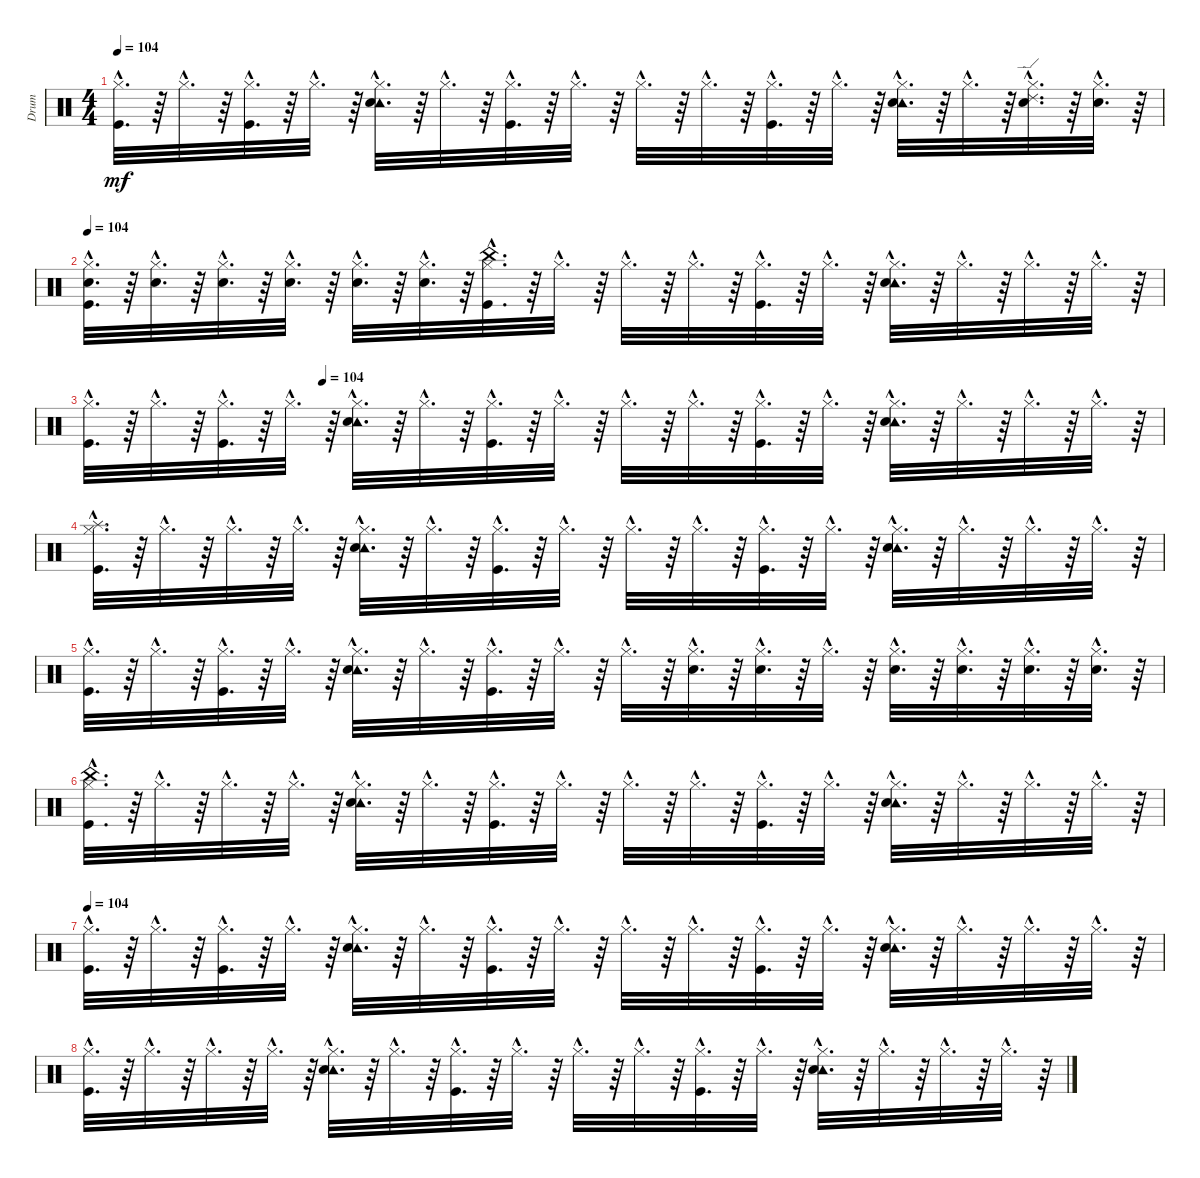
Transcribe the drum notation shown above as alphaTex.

\track ("Drum" "Drum") {instrument percussion}
\staff {score}
\articulation defaults
\ts (4 4)
\tempo 104
\clef neutral
\ks c
("Hi-Hat (closed)"{hac} "Kick (hit)"{hac}).32{d dy mf} r.64 "Hi-Hat (closed)"{hac}.32{d} r.64 ("Kick (hit)"{hac} "Hi-Hat (closed)"{hac}).32{d} r.64 "Hi-Hat (closed)"{hac}.32{d} r.64 ("Tambourine (hit)"{hac} "Hi-Hat (closed)"{hac} "Snare (hit) 2"{hac}).32{d} r.64 "Hi-Hat (closed)"{hac}.32{d} r.64 ("Hi-Hat (closed)"{hac} "Kick (hit)"{hac}).32{d} r.64 "Hi-Hat (closed)"{hac}.32{d} r.64 "Hi-Hat (closed)"{hac}.32{d} r.64 "Hi-Hat (closed)"{hac}.32{d} r.64 ("Kick (hit)"{hac} "Hi-Hat (closed)"{hac}).32{d} r.64 "Hi-Hat (closed)"{hac}.32{d} r.64 ("Tambourine (hit)"{hac} "Snare (hit) 2"{hac} "Hi-Hat (closed)"{hac}).32{d} r.64 "Hi-Hat (closed)"{hac}.32{d} r.64 ("Ride (edge) 2"{hac} "Hi-Hat (closed)"{hac} "Snare (hit) 2"{hac}).32{d} r.64 ("Hi-Hat (closed)"{hac} "Snare (hit) 2"{hac}).32{d} r.64 |
\tempo 104
("Snare (hit) 2"{hac} "Kick (hit)"{hac} "Hi-Hat (closed)"{hac}).32{d} r.64 ("Snare (hit) 2"{hac} "Hi-Hat (closed)"{hac}).32{d} r.64 ("Snare (hit) 2"{hac} "Hi-Hat (closed)"{hac}).32{d} r.64 ("Snare (hit) 2"{hac} "Hi-Hat (closed)"{hac}).32{d} r.64 ("Snare (hit) 2"{hac} "Hi-Hat (closed)"{hac}).32{d} r.64 ("Snare (hit) 2"{hac} "Hi-Hat (closed)"{hac}).32{d} r.64 ("China (hit)"{hac} "Kick (hit)"{hac} "Hi-Hat (closed)"{hac}).32{d} r.64 "Hi-Hat (closed)"{hac}.32{d} r.64 "Hi-Hat (closed)"{hac}.32{d} r.64 "Hi-Hat (closed)"{hac}.32{d} r.64 ("Kick (hit)"{hac} "Hi-Hat (closed)"{hac}).32{d} r.64 "Hi-Hat (closed)"{hac}.32{d} r.64 ("Tambourine (hit)"{hac} "Snare (hit) 2"{hac} "Hi-Hat (closed)"{hac}).32{d} r.64 "Hi-Hat (closed)"{hac}.32{d} r.64 "Hi-Hat (closed)"{hac}.32{d} r.64 "Hi-Hat (closed)"{hac}.32{d} r.64 |
\tempo (104 0.21875)
("Hi-Hat (closed)"{hac} "Kick (hit)"{hac}).32{d} r.64 "Hi-Hat (closed)"{hac}.32{d} r.64 ("Kick (hit)"{hac} "Hi-Hat (closed)"{hac}).32{d} r.64 "Hi-Hat (closed)"{hac}.32{d} r.64 ("Tambourine (hit)"{hac} "Hi-Hat (closed)"{hac} "Snare (hit) 2"{hac}).32{d} r.64 "Hi-Hat (closed)"{hac}.32{d} r.64 ("Hi-Hat (closed)"{hac} "Kick (hit)"{hac}).32{d} r.64 "Hi-Hat (closed)"{hac}.32{d} r.64 "Hi-Hat (closed)"{hac}.32{d} r.64 "Hi-Hat (closed)"{hac}.32{d} r.64 ("Hi-Hat (closed)"{hac} "Kick (hit)"{hac}).32{d} r.64 "Hi-Hat (closed)"{hac}.32{d} r.64 ("Tambourine (hit)"{hac} "Hi-Hat (closed)"{hac} "Snare (hit) 2"{hac}).32{d} r.64 "Hi-Hat (closed)"{hac}.32{d} r.64 "Hi-Hat (closed)"{hac}.32{d} r.64 "Hi-Hat (closed)"{hac}.32{d} r.64 |
("Splash (hit)"{hac} "Hi-Hat (closed)"{hac} "Kick (hit)"{hac}).32{d} r.64 "Hi-Hat (closed)"{hac}.32{d} r.64 "Hi-Hat (closed)"{hac}.32{d} r.64 "Hi-Hat (closed)"{hac}.32{d} r.64 ("Tambourine (hit)"{hac} "Hi-Hat (closed)"{hac} "Snare (hit) 2"{hac}).32{d} r.64 "Hi-Hat (closed)"{hac}.32{d} r.64 ("Hi-Hat (closed)"{hac} "Kick (hit)"{hac}).32{d} r.64 "Hi-Hat (closed)"{hac}.32{d} r.64 "Hi-Hat (closed)"{hac}.32{d} r.64 "Hi-Hat (closed)"{hac}.32{d} r.64 ("Hi-Hat (closed)"{hac} "Kick (hit)"{hac}).32{d} r.64 "Hi-Hat (closed)"{hac}.32{d} r.64 ("Tambourine (hit)"{hac} "Hi-Hat (closed)"{hac} "Snare (hit) 2"{hac}).32{d} r.64 "Hi-Hat (closed)"{hac}.32{d} r.64 "Hi-Hat (closed)"{hac}.32{d} r.64 "Hi-Hat (closed)"{hac}.32{d} r.64 |
("Hi-Hat (closed)"{hac} "Kick (hit)"{hac}).32{d} r.64 "Hi-Hat (closed)"{hac}.32{d} r.64 ("Kick (hit)"{hac} "Hi-Hat (closed)"{hac}).32{d} r.64 "Hi-Hat (closed)"{hac}.32{d} r.64 ("Tambourine (hit)"{hac} "Hi-Hat (closed)"{hac} "Snare (hit) 2"{hac}).32{d} r.64 "Hi-Hat (closed)"{hac}.32{d} r.64 ("Hi-Hat (closed)"{hac} "Kick (hit)"{hac}).32{d} r.64 "Hi-Hat (closed)"{hac}.32{d} r.64 "Hi-Hat (closed)"{hac}.32{d} r.64 ("Snare (hit) 2"{hac} "Hi-Hat (closed)"{hac}).32{d} r.64 ("Hi-Hat (closed)"{hac} "Snare (hit) 2"{hac}).32{d} r.64 "Hi-Hat (closed)"{hac}.32{d} r.64 ("Hi-Hat (closed)"{hac} "Snare (hit) 2"{hac}).32{d} r.64 ("Snare (hit) 2"{hac} "Hi-Hat (closed)"{hac}).32{d} r.64 ("Hi-Hat (closed)"{hac} "Snare (hit) 2"{hac}).32{d} r.64 ("Hi-Hat (closed)"{hac} "Snare (hit) 2"{hac}).32{d} r.64 |
("Kick (hit)"{hac} "China (hit)"{hac} "Hi-Hat (closed)"{hac}).32{d} r.64 "Hi-Hat (closed)"{hac}.32{d} r.64 "Hi-Hat (closed)"{hac}.32{d} r.64 "Hi-Hat (closed)"{hac}.32{d} r.64 ("Tambourine (hit)"{hac} "Snare (hit) 2"{hac} "Hi-Hat (closed)"{hac}).32{d} r.64 "Hi-Hat (closed)"{hac}.32{d} r.64 ("Kick (hit)"{hac} "Hi-Hat (closed)"{hac}).32{d} r.64 "Hi-Hat (closed)"{hac}.32{d} r.64 "Hi-Hat (closed)"{hac}.32{d} r.64 "Hi-Hat (closed)"{hac}.32{d} r.64 ("Kick (hit)"{hac} "Hi-Hat (closed)"{hac}).32{d} r.64 "Hi-Hat (closed)"{hac}.32{d} r.64 ("Tambourine (hit)"{hac} "Snare (hit) 2"{hac} "Hi-Hat (closed)"{hac}).32{d} r.64 "Hi-Hat (closed)"{hac}.32{d} r.64 "Hi-Hat (closed)"{hac}.32{d} r.64 "Hi-Hat (closed)"{hac}.32{d} r.64 |
\tempo 104
("Hi-Hat (closed)"{hac} "Kick (hit)"{hac}).32{d} r.64 "Hi-Hat (closed)"{hac}.32{d} r.64 ("Kick (hit)"{hac} "Hi-Hat (closed)"{hac}).32{d} r.64 "Hi-Hat (closed)"{hac}.32{d} r.64 ("Tambourine (hit)"{hac} "Hi-Hat (closed)"{hac} "Snare (hit) 2"{hac}).32{d} r.64 "Hi-Hat (closed)"{hac}.32{d} r.64 ("Hi-Hat (closed)"{hac} "Kick (hit)"{hac}).32{d} r.64 "Hi-Hat (closed)"{hac}.32{d} r.64 "Hi-Hat (closed)"{hac}.32{d} r.64 "Hi-Hat (closed)"{hac}.32{d} r.64 ("Hi-Hat (closed)"{hac} "Kick (hit)"{hac}).32{d} r.64 "Hi-Hat (closed)"{hac}.32{d} r.64 ("Tambourine (hit)"{hac} "Hi-Hat (closed)"{hac} "Snare (hit) 2"{hac}).32{d} r.64 "Hi-Hat (closed)"{hac}.32{d} r.64 "Hi-Hat (closed)"{hac}.32{d} r.64 "Hi-Hat (closed)"{hac}.32{d} r.64 |
("Hi-Hat (closed)"{hac} "Kick (hit)"{hac}).32{d} r.64 "Hi-Hat (closed)"{hac}.32{d} r.64 "Hi-Hat (closed)"{hac}.32{d} r.64 "Hi-Hat (closed)"{hac}.32{d} r.64 ("Tambourine (hit)"{hac} "Hi-Hat (closed)"{hac} "Snare (hit) 2"{hac}).32{d} r.64 "Hi-Hat (closed)"{hac}.32{d} r.64 ("Hi-Hat (closed)"{hac} "Kick (hit)"{hac}).32{d} r.64 "Hi-Hat (closed)"{hac}.32{d} r.64 "Hi-Hat (closed)"{hac}.32{d} r.64 "Hi-Hat (closed)"{hac}.32{d} r.64 ("Hi-Hat (closed)"{hac} "Kick (hit)"{hac}).32{d} r.64 "Hi-Hat (closed)"{hac}.32{d} r.64 ("Tambourine (hit)"{hac} "Hi-Hat (closed)"{hac} "Snare (hit) 2"{hac}).32{d} r.64 "Hi-Hat (closed)"{hac}.32{d} r.64 "Hi-Hat (closed)"{hac}.32{d} r.64 "Hi-Hat (closed)"{hac}.32{d} r.64
